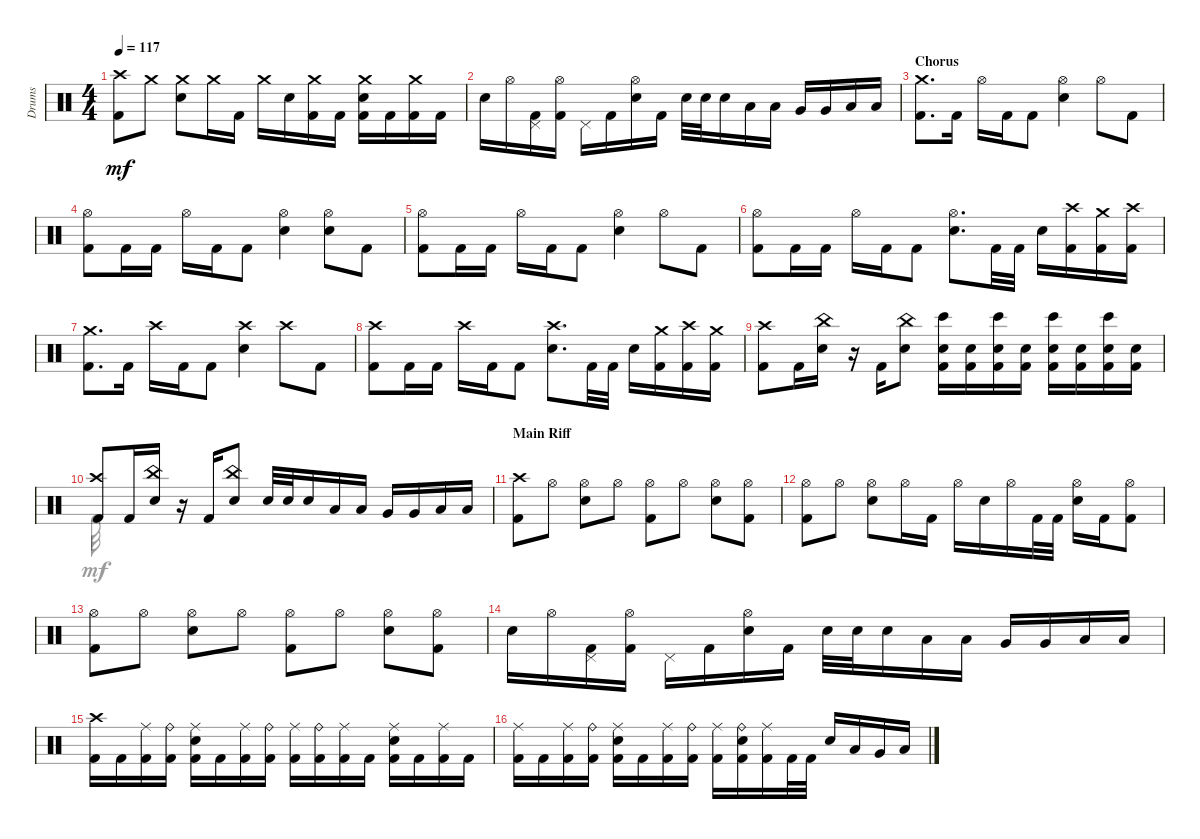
\track ("Drums" "Drums") {instrument percussion}
\staff {score}
\articulation defaults
\voice
\ts (4 4)
\tempo 117
\clef neutral
\ks aminor
("Kick (hit) 2" "Crash high (hit)").8{dy mf} "Crash medium (hit)".8 ("Crash medium (hit)" "Snare (hit) 2").8 "Crash medium (hit)".16 "Kick (hit) 2".16 "Crash medium (hit)".16 "Snare (hit) 2".16 ("Crash medium (hit)" "Kick (hit) 2").16 "Kick (hit) 2".16 ("Crash medium (hit)" "Snare (hit) 2" "Kick (hit) 2").16 "Kick (hit) 2".16 ("Crash medium (hit)" "Kick (hit) 2").16 "Kick (hit) 2".16 |
"Snare (hit) 2".16 "Hi-Hat (open)".16 ("Kick (hit) 2" "Pedal Hi-Hat (hit)").16 ("Kick (hit) 2" "Hi-Hat (open)").16 "Pedal Hi-Hat (hit)".16 "Kick (hit) 2".16 ("Hi-Hat (open)" "Snare (hit) 2").16 "Kick (hit) 2".16 "Snare (hit) 2".32 "Snare (hit) 2".32 "Snare (hit) 2".16 "Low Tom (hit)".16 "Low Tom (hit)".16 "Very Low Tom (hit)".16 "Very Low Tom (hit)".16 "Low Floor Tom (hit)".16 "Low Floor Tom (hit)".16 |
\section ("" "Chorus")
("Crash medium (hit)" "Kick (hit) 2").8{d} "Kick (hit) 2".16 "Hi-Hat (open)".16 "Kick (hit) 2".16 "Kick (hit) 2".8 ("Hi-Hat (open)" "Snare (hit) 2").4 "Hi-Hat (open)".8 "Kick (hit) 2".8 |
("Hi-Hat (open)" "Kick (hit) 2").8 "Kick (hit) 2".16 "Kick (hit) 2".16 "Hi-Hat (open)".16 "Kick (hit) 2".16 "Kick (hit) 2".8 ("Hi-Hat (open)" "Snare (hit) 2").4 ("Snare (hit) 2" "Hi-Hat (open)").8 "Kick (hit) 2".8 |
("Hi-Hat (open)" "Kick (hit) 2").8 "Kick (hit) 2".16 "Kick (hit) 2".16 "Hi-Hat (open)".16 "Kick (hit) 2".16 "Kick (hit) 2".8 ("Snare (hit) 2" "Hi-Hat (open)").4 "Hi-Hat (open)".8 "Kick (hit) 2".8 |
("Kick (hit) 2" "Hi-Hat (open)").8 "Kick (hit) 2".16 "Kick (hit) 2".16 "Hi-Hat (open)".16 "Kick (hit) 2".16 "Kick (hit) 2".8 ("Hi-Hat (open)" "Snare (hit) 2").8{d} "Kick (hit) 2".32 "Kick (hit) 2".32 "Snare (hit) 2".16 ("Crash high (hit)" "Kick (hit) 2").16 ("Kick (hit) 2" "Crash medium (hit)").16 ("Crash high (hit)" "Kick (hit) 2").16 |
("Kick (hit) 2" "Crash medium (hit)").8{d} "Kick (hit) 2".16 "Crash high (hit)".16 "Kick (hit) 2".16 "Kick (hit) 2".8 ("Snare (hit) 2" "Crash high (hit)").4 "Crash high (hit)".8 "Kick (hit) 2".8 |
("Kick (hit) 2" "Crash high (hit)").8 "Kick (hit) 2".16 "Kick (hit) 2".16 "Crash high (hit)".16 "Kick (hit) 2".16 "Kick (hit) 2".8 ("Snare (hit) 2" "Crash high (hit)").8{d} "Kick (hit) 2".32 "Kick (hit) 2".32 "Snare (hit) 2".16 ("Crash medium (hit)" "Kick (hit) 2").16 ("Crash high (hit)" "Kick (hit) 2").16 ("Crash medium (hit)" "Kick (hit) 2").16 |
("Crash high (hit)" "Kick (hit) 2").8 "Kick (hit) 2".16 ("Snare (hit) 2" "China (hit)").16 r.16 "Kick (hit) 2".16 ("China (hit)" "Snare (hit) 2").8 ("Snare (hit) 2" "Bongo High (hit)" "Kick (hit) 2").16 ("Snare (hit) 2" "Kick (hit) 2").16 ("Bongo High (hit)" "Snare (hit) 2" "Kick (hit) 2").16 ("Snare (hit) 2" "Kick (hit) 2").16 ("Bongo High (hit)" "Kick (hit) 2" "Snare (hit) 2").16 ("Kick (hit) 2" "Snare (hit) 2").16 ("Kick (hit) 2" "Snare (hit) 2" "Bongo High (hit)").16 ("Snare (hit) 2" "Kick (hit) 2").16 |
("Crash high (hit)" "Kick (hit) 2").8 "Kick (hit) 2".16 ("China (hit)" "Snare (hit) 2").16 r.16 "Kick (hit) 2".16 ("Snare (hit) 2" "China (hit)").8 "Snare (hit) 2".32 "Snare (hit) 2".32 "Snare (hit) 2".16 "Low Tom (hit)".16 "Low Tom (hit)".16 "Very Low Tom (hit)".16 "Very Low Tom (hit)".16 "Low Floor Tom (hit)".16 "Low Floor Tom (hit)".16 |
\section ("" "Main Riff")
("Kick (hit) 2" "Crash high (hit)").8 "Hi-Hat (open)".8 ("Hi-Hat (open)" "Snare (hit) 2").8 "Hi-Hat (open)".8 ("Kick (hit) 2" "Hi-Hat (open)").8 "Hi-Hat (open)".8 ("Snare (hit) 2" "Hi-Hat (open)").8 ("Kick (hit) 2" "Hi-Hat (open)").8 |
("Kick (hit) 2" "Hi-Hat (open)").8 "Hi-Hat (open)".8 ("Hi-Hat (open)" "Snare (hit) 2").8 "Hi-Hat (open)".16 "Kick (hit) 2".16 "Hi-Hat (open)".16 "Snare (hit) 2".16 "Hi-Hat (open)".16 "Kick (hit) 2".32 "Kick (hit) 2".32 ("Hi-Hat (open)" "Snare (hit) 2").16 "Kick (hit) 2".16 ("Hi-Hat (open)" "Kick (hit) 2").8 |
("Kick (hit) 2" "Hi-Hat (open)").8 "Hi-Hat (open)".8 ("Snare (hit) 2" "Hi-Hat (open)").8 "Hi-Hat (open)".8 ("Kick (hit) 2" "Hi-Hat (open)").8 "Hi-Hat (open)".8 ("Snare (hit) 2" "Hi-Hat (open)").8 ("Kick (hit) 2" "Hi-Hat (open)").8 |
"Snare (hit) 2".16 "Hi-Hat (open)".16 ("Pedal Hi-Hat (hit)" "Kick (hit) 2").16 ("Kick (hit) 2" "Hi-Hat (open)").16 "Pedal Hi-Hat (hit)".16 "Kick (hit) 2".16 ("Hi-Hat (open)" "Snare (hit) 2").16 "Kick (hit) 2".16 "Snare (hit) 2".32 "Snare (hit) 2".32 "Snare (hit) 2".16 "Low Tom (hit)".16 "Low Tom (hit)".16 "Very Low Tom (hit)".16 "Very Low Tom (hit)".16 "Low Floor Tom (hit)".16 "Low Floor Tom (hit)".16 |
("Crash high (hit)" "Kick (hit) 2").16 "Kick (hit) 2".16 ("Kick (hit) 2" "Ride (middle)").16 ("Ride (bell)" "Kick (hit) 2").16 ("Ride (middle)" "Snare (hit) 2" "Kick (hit) 2").16 "Kick (hit) 2".16 ("Ride (middle)" "Kick (hit) 2").16 ("Kick (hit) 2" "Ride (bell)").16 ("Kick (hit) 2" "Ride (middle)").16 ("Ride (bell)" "Kick (hit) 2").16 ("Kick (hit) 2" "Ride (middle)").16 "Kick (hit) 2".16 ("Snare (hit) 2" "Kick (hit) 2" "Ride (middle)").16 "Kick (hit) 2".16 ("Ride (middle)" "Kick (hit) 2").16 "Kick (hit) 2".16 |
("Ride (middle)" "Kick (hit) 2").16 "Kick (hit) 2".16 ("Ride (middle)" "Kick (hit) 2").16 ("Kick (hit) 2" "Ride (bell)").16 ("Kick (hit) 2" "Snare (hit) 2" "Ride (middle)").16 "Kick (hit) 2".16 ("Ride (middle)" "Kick (hit) 2").16 ("Ride (bell)" "Kick (hit) 2").16 ("Kick (hit) 2" "Ride (middle)").16 ("Kick (hit) 2" "Snare (hit) 2" "Ride (bell)").16 ("Kick (hit) 2" "Ride (middle)").16 "Kick (hit) 2".32 "Kick (hit) 2".32 "Snare (hit) 2".16 "Low Tom (hit)".16 "Very Low Tom (hit)".16 "Low Floor Tom (hit)".16
\voice
\clef neutral
\ottava regular
\simile none
\ks aminor
|
|
|
|
|
|
|
|
|
"Kick (hit) 2".32 |
|
|
|
|
|
